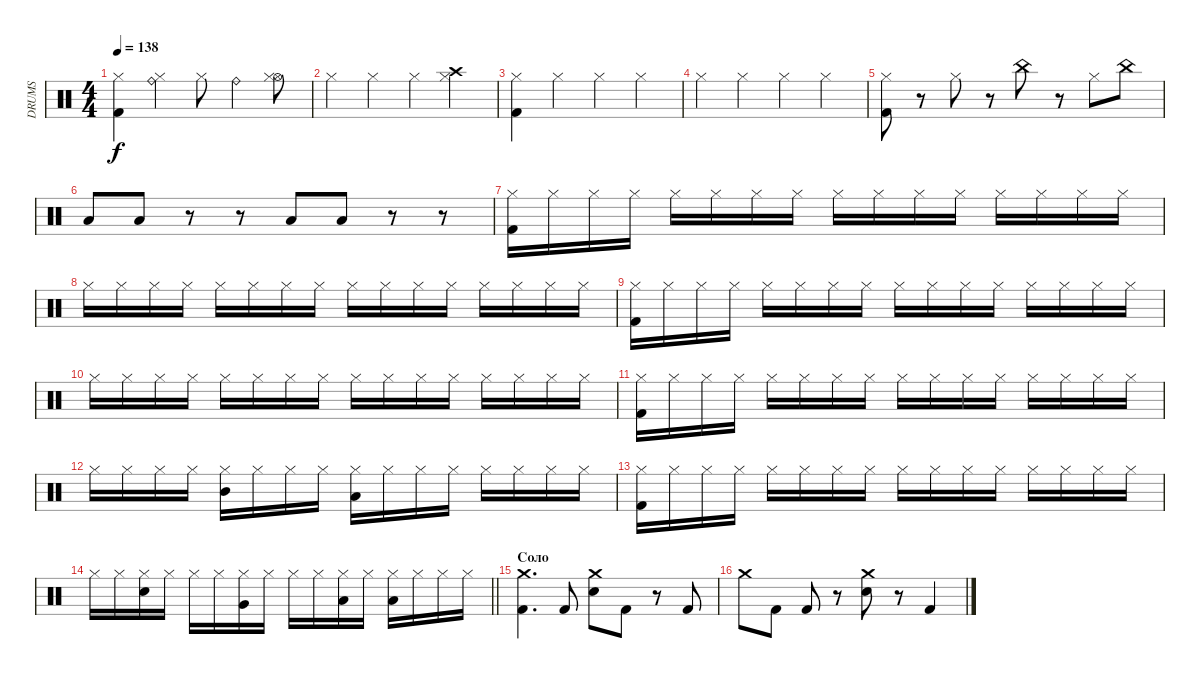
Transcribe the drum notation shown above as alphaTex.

\track ("DRUMS" "DRUMS") {instrument percussion}
\staff {score}
\articulation defaults
\ts (4 4)
\tempo 138
\clef neutral
\ks c
("Hi-Hat (closed)" "Kick (hit) 2").4{dy f} ("Ride (bell)" "Hi-Hat (closed)").4 "Hi-Hat (closed)".8 "Ride (bell)".4 ("Hi-Hat (open)" "Hi-Hat (closed)").8 |
"Hi-Hat (closed)".4 "Hi-Hat (closed)".4 "Hi-Hat (closed)".4 ("Hi-Hat (closed)" "Crash high (hit)").4 |
("Hi-Hat (closed)" "Kick (hit) 2").4 "Hi-Hat (closed)".4 "Hi-Hat (closed)".4 "Hi-Hat (closed)".4 |
"Hi-Hat (closed)".4 "Hi-Hat (closed)".4 "Hi-Hat (closed)".4 "Hi-Hat (closed)".4 |
("Hi-Hat (closed)" "Kick (hit) 2").8 r.8 "Hi-Hat (closed)".8 r.8 "China (hit)".8 r.8 "Hi-Hat (closed)".8 "China (hit)".8 |
"Low Tom (hit)".8 "Low Tom (hit)".8 r.8 r.8 "Low Floor Tom (hit)".8 "Low Floor Tom (hit)".8 r.8 r.8 |
("Hi-Hat (closed)" "Kick (hit) 2").16 "Hi-Hat (closed)".16 "Hi-Hat (closed)".16 "Hi-Hat (closed)".16 "Hi-Hat (closed)".16 "Hi-Hat (closed)".16 "Hi-Hat (closed)".16 "Hi-Hat (closed)".16 "Hi-Hat (closed)".16 "Hi-Hat (closed)".16 "Hi-Hat (closed)".16 "Hi-Hat (closed)".16 "Hi-Hat (closed)".16 "Hi-Hat (closed)".16 "Hi-Hat (closed)".16 "Hi-Hat (closed)".16 |
"Hi-Hat (closed)".16 "Hi-Hat (closed)".16 "Hi-Hat (closed)".16 "Hi-Hat (closed)".16 "Hi-Hat (closed)".16 "Hi-Hat (closed)".16 "Hi-Hat (closed)".16 "Hi-Hat (closed)".16 "Hi-Hat (closed)".16 "Hi-Hat (closed)".16 "Hi-Hat (closed)".16 "Hi-Hat (closed)".16 "Hi-Hat (closed)".16 "Hi-Hat (closed)".16 "Hi-Hat (closed)".16 "Hi-Hat (closed)".16 |
("Hi-Hat (closed)" "Kick (hit) 2").16 "Hi-Hat (closed)".16 "Hi-Hat (closed)".16 "Hi-Hat (closed)".16 "Hi-Hat (closed)".16 "Hi-Hat (closed)".16 "Hi-Hat (closed)".16 "Hi-Hat (closed)".16 "Hi-Hat (closed)".16 "Hi-Hat (closed)".16 "Hi-Hat (closed)".16 "Hi-Hat (closed)".16 "Hi-Hat (closed)".16 "Hi-Hat (closed)".16 "Hi-Hat (closed)".16 "Hi-Hat (closed)".16 |
"Hi-Hat (closed)".16 "Hi-Hat (closed)".16 "Hi-Hat (closed)".16 "Hi-Hat (closed)".16 "Hi-Hat (closed)".16 "Hi-Hat (closed)".16 "Hi-Hat (closed)".16 "Hi-Hat (closed)".16 "Hi-Hat (closed)".16 "Hi-Hat (closed)".16 "Hi-Hat (closed)".16 "Hi-Hat (closed)".16 "Hi-Hat (closed)".16 "Hi-Hat (closed)".16 "Hi-Hat (closed)".16 "Hi-Hat (closed)".16 |
("Hi-Hat (closed)" "Kick (hit) 2").16 "Hi-Hat (closed)".16 "Hi-Hat (closed)".16 "Hi-Hat (closed)".16 "Hi-Hat (closed)".16 "Hi-Hat (closed)".16 "Hi-Hat (closed)".16 "Hi-Hat (closed)".16 "Hi-Hat (closed)".16 "Hi-Hat (closed)".16 "Hi-Hat (closed)".16 "Hi-Hat (closed)".16 "Hi-Hat (closed)".16 "Hi-Hat (closed)".16 "Hi-Hat (closed)".16 "Hi-Hat (closed)".16 |
"Hi-Hat (closed)".16 "Hi-Hat (closed)".16 "Hi-Hat (closed)".16 "Hi-Hat (closed)".16 ("Hi-Hat (closed)" "Mid Tom (hit)").16 "Hi-Hat (closed)".16 "Hi-Hat (closed)".16 "Hi-Hat (closed)".16 ("Hi-Hat (closed)" "Low Tom (hit)").16 "Hi-Hat (closed)".16 "Hi-Hat (closed)".16 "Hi-Hat (closed)".16 "Hi-Hat (closed)".16 "Hi-Hat (closed)".16 "Hi-Hat (closed)".16 "Hi-Hat (closed)".16 |
("Hi-Hat (closed)" "Kick (hit) 2").16 "Hi-Hat (closed)".16 "Hi-Hat (closed)".16 "Hi-Hat (closed)".16 "Hi-Hat (closed)".16 "Hi-Hat (closed)".16 "Hi-Hat (closed)".16 "Hi-Hat (closed)".16 "Hi-Hat (closed)".16 "Hi-Hat (closed)".16 "Hi-Hat (closed)".16 "Hi-Hat (closed)".16 "Hi-Hat (closed)".16 "Hi-Hat (closed)".16 "Hi-Hat (closed)".16 "Hi-Hat (closed)".16 |
\barLineRight lightlight "Hi-Hat (closed)".16 "Hi-Hat (closed)".16
("Hi-Hat (closed)" "Electric Snare (hit)").16 "Hi-Hat (closed)".16 "Hi-Hat (closed)".16 "Hi-Hat (closed)".16 ("Hi-Hat (closed)" "Very Low Tom (hit)").16 "Hi-Hat (closed)".16 "Hi-Hat (closed)".16 "Hi-Hat (closed)".16 ("Hi-Hat (closed)" "Low Floor Tom (hit)").16 "Hi-Hat (closed)".16 ("Hi-Hat (closed)" "Low Floor Tom (hit)").16 "Hi-Hat (closed)".16 "Hi-Hat (closed)".16 "Hi-Hat (closed)".16 |
\section ("" "Соло")
("Crash medium (hit)" "Kick (hit) 2").4{d} "Kick (hit) 2".8 ("Crash medium (hit)" "Electric Snare (hit)").8 "Kick (hit) 2".8 r.8 "Kick (hit) 2".8 |
"Crash medium (hit)".8 "Kick (hit) 2".8 "Kick (hit) 2".8 r.8 ("Crash medium (hit)" "Electric Snare (hit)").8 r.8 "Kick (hit) 2".4
